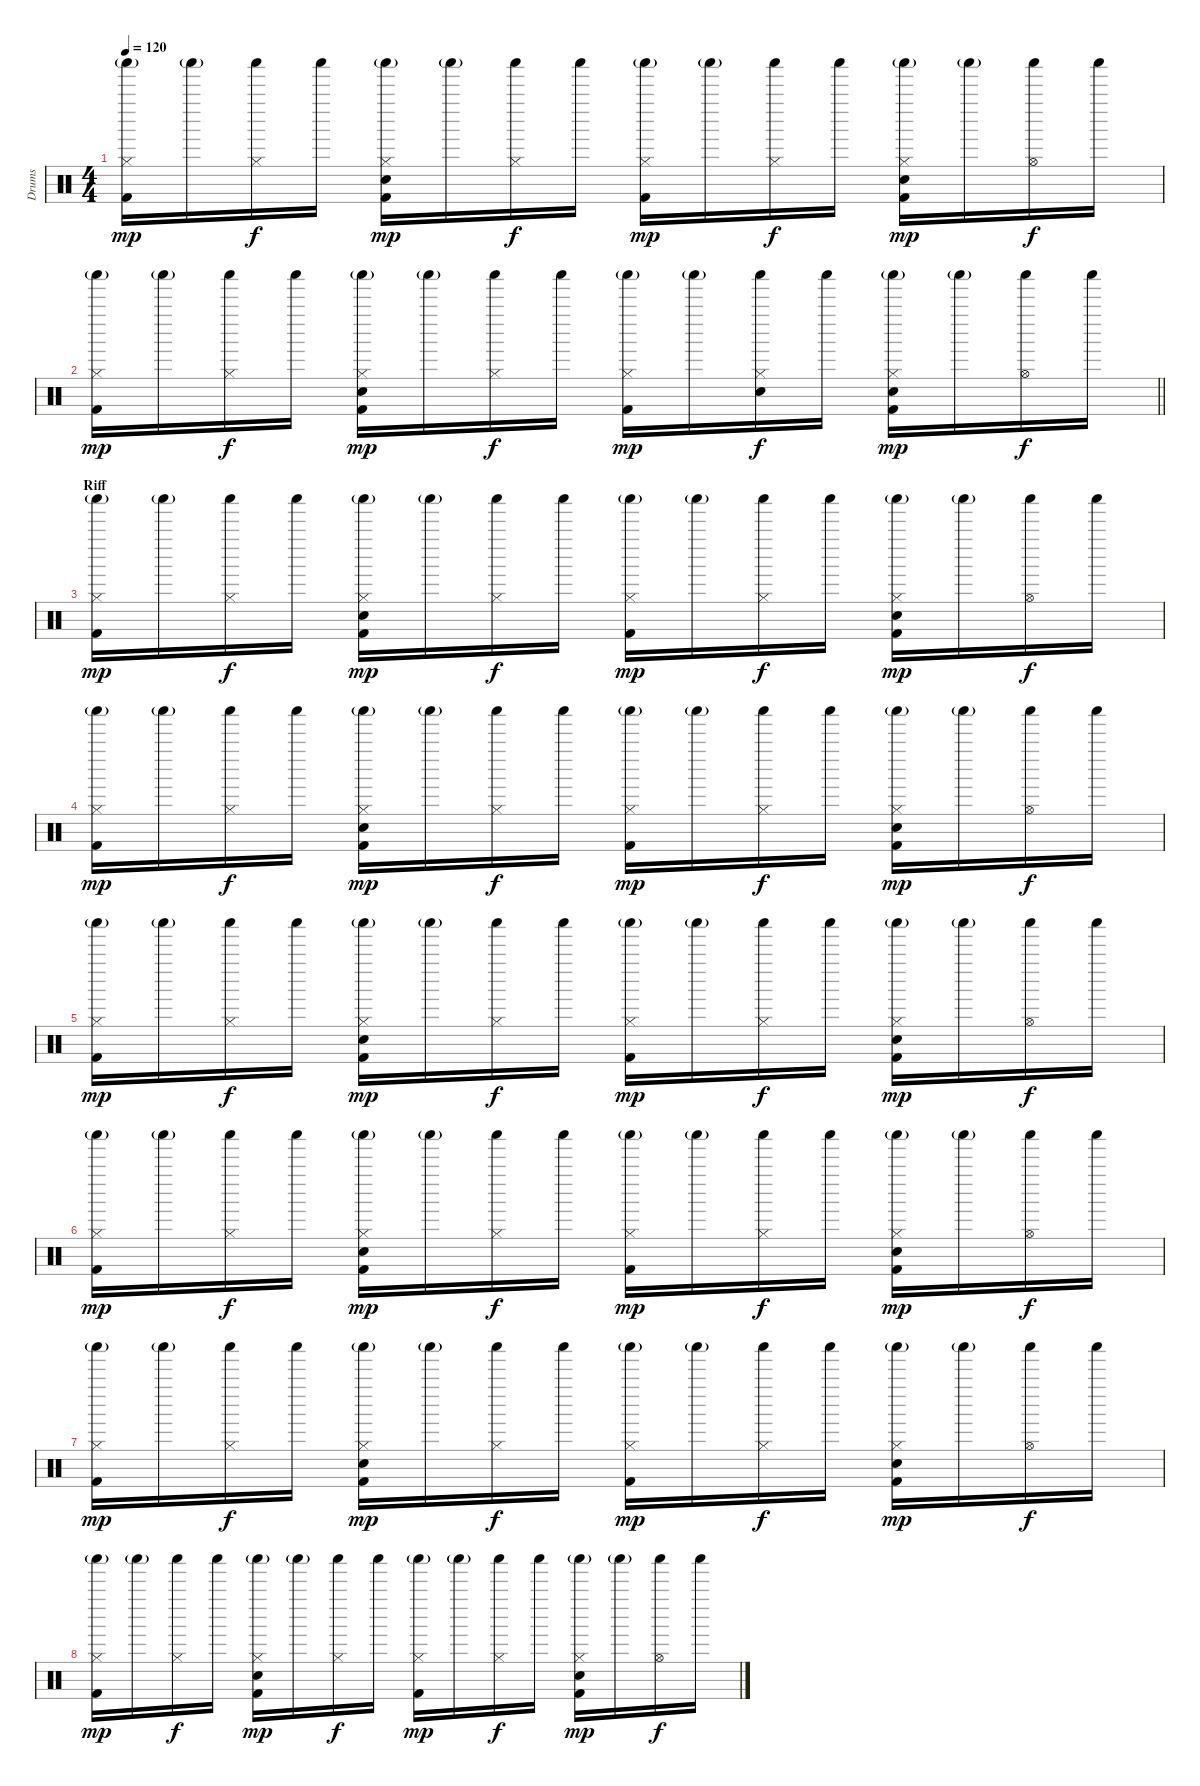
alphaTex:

\track ("Drums" "Drums") {instrument percussion}
\staff {score}
\articulation defaults
\ts (4 4)
\tempo 120
\clef neutral
\ks c
("Hi-Hat (closed)" "Shaker (hit)"{g} "Kick (hit) 2").16{dy mp} "Shaker (hit)"{g}.16 ("Hi-Hat (closed)" "Shaker (hit)").16{dy f} "Shaker (hit)".16 ("Hi-Hat (closed)" "Shaker (hit)"{g} "Electric Snare (hit)" "Kick (hit) 2").16{dy mp} "Shaker (hit)"{g}.16 ("Hi-Hat (closed)" "Shaker (hit)").16{dy f} "Shaker (hit)".16 ("Hi-Hat (closed)" "Shaker (hit)"{g} "Kick (hit) 2").16{dy mp} "Shaker (hit)"{g}.16 ("Hi-Hat (closed)" "Shaker (hit)").16{dy f} "Shaker (hit)".16 ("Hi-Hat (closed)" "Shaker (hit)"{g} "Electric Snare (hit)" "Kick (hit) 2").16{dy mp} "Shaker (hit)"{g}.16 ("Hi-Hat (open)" "Shaker (hit)").16{dy f} "Shaker (hit)".16 |
\barLineRight lightlight
("Hi-Hat (closed)" "Shaker (hit)"{g} "Kick (hit) 2").16{dy mp} "Shaker (hit)"{g}.16 ("Hi-Hat (closed)" "Shaker (hit)").16{dy f} "Shaker (hit)".16 ("Hi-Hat (closed)" "Shaker (hit)"{g} "Electric Snare (hit)" "Kick (hit) 2").16{dy mp} "Shaker (hit)"{g}.16 ("Hi-Hat (closed)" "Shaker (hit)").16{dy f} "Shaker (hit)".16 ("Hi-Hat (closed)" "Shaker (hit)"{g} "Kick (hit) 2").16{dy mp} "Shaker (hit)"{g}.16 ("Hi-Hat (closed)" "Shaker (hit)" "Electric Snare (hit)").16{dy f} "Shaker (hit)".16 ("Hi-Hat (closed)" "Shaker (hit)"{g} "Electric Snare (hit)" "Kick (hit) 2").16{dy mp} "Shaker (hit)"{g}.16 ("Hi-Hat (open)" "Shaker (hit)").16{dy f} "Shaker (hit)".16 |
\section ("" "Riff")
("Hi-Hat (closed)" "Shaker (hit)"{g} "Kick (hit) 2").16{dy mp} "Shaker (hit)"{g}.16 ("Hi-Hat (closed)" "Shaker (hit)").16{dy f} "Shaker (hit)".16 ("Hi-Hat (closed)" "Shaker (hit)"{g} "Electric Snare (hit)" "Kick (hit) 2").16{dy mp} "Shaker (hit)"{g}.16 ("Hi-Hat (closed)" "Shaker (hit)").16{dy f} "Shaker (hit)".16 ("Hi-Hat (closed)" "Shaker (hit)"{g} "Kick (hit) 2").16{dy mp} "Shaker (hit)"{g}.16 ("Hi-Hat (closed)" "Shaker (hit)").16{dy f} "Shaker (hit)".16 ("Hi-Hat (closed)" "Shaker (hit)"{g} "Electric Snare (hit)" "Kick (hit) 2").16{dy mp} "Shaker (hit)"{g}.16 ("Hi-Hat (open)" "Shaker (hit)").16{dy f} "Shaker (hit)".16 |
("Hi-Hat (closed)" "Shaker (hit)"{g} "Kick (hit) 2").16{dy mp} "Shaker (hit)"{g}.16 ("Hi-Hat (closed)" "Shaker (hit)").16{dy f} "Shaker (hit)".16 ("Hi-Hat (closed)" "Shaker (hit)"{g} "Electric Snare (hit)" "Kick (hit) 2").16{dy mp} "Shaker (hit)"{g}.16 ("Hi-Hat (closed)" "Shaker (hit)").16{dy f} "Shaker (hit)".16 ("Hi-Hat (closed)" "Shaker (hit)"{g} "Kick (hit) 2").16{dy mp} "Shaker (hit)"{g}.16 ("Hi-Hat (closed)" "Shaker (hit)").16{dy f} "Shaker (hit)".16 ("Hi-Hat (closed)" "Shaker (hit)"{g} "Electric Snare (hit)" "Kick (hit) 2").16{dy mp} "Shaker (hit)"{g}.16 ("Hi-Hat (open)" "Shaker (hit)").16{dy f} "Shaker (hit)".16 |
("Hi-Hat (closed)" "Shaker (hit)"{g} "Kick (hit) 2").16{dy mp} "Shaker (hit)"{g}.16 ("Hi-Hat (closed)" "Shaker (hit)").16{dy f} "Shaker (hit)".16 ("Hi-Hat (closed)" "Shaker (hit)"{g} "Electric Snare (hit)" "Kick (hit) 2").16{dy mp} "Shaker (hit)"{g}.16 ("Hi-Hat (closed)" "Shaker (hit)").16{dy f} "Shaker (hit)".16 ("Hi-Hat (closed)" "Shaker (hit)"{g} "Kick (hit) 2").16{dy mp} "Shaker (hit)"{g}.16 ("Hi-Hat (closed)" "Shaker (hit)").16{dy f} "Shaker (hit)".16 ("Hi-Hat (closed)" "Shaker (hit)"{g} "Electric Snare (hit)" "Kick (hit) 2").16{dy mp} "Shaker (hit)"{g}.16 ("Hi-Hat (open)" "Shaker (hit)").16{dy f} "Shaker (hit)".16 |
("Hi-Hat (closed)" "Shaker (hit)"{g} "Kick (hit) 2").16{dy mp} "Shaker (hit)"{g}.16 ("Hi-Hat (closed)" "Shaker (hit)").16{dy f} "Shaker (hit)".16 ("Hi-Hat (closed)" "Shaker (hit)"{g} "Electric Snare (hit)" "Kick (hit) 2").16{dy mp} "Shaker (hit)"{g}.16 ("Hi-Hat (closed)" "Shaker (hit)").16{dy f} "Shaker (hit)".16 ("Hi-Hat (closed)" "Shaker (hit)"{g} "Kick (hit) 2").16{dy mp} "Shaker (hit)"{g}.16 ("Hi-Hat (closed)" "Shaker (hit)").16{dy f} "Shaker (hit)".16 ("Hi-Hat (closed)" "Shaker (hit)"{g} "Electric Snare (hit)" "Kick (hit) 2").16{dy mp} "Shaker (hit)"{g}.16 ("Hi-Hat (open)" "Shaker (hit)").16{dy f} "Shaker (hit)".16 |
("Hi-Hat (closed)" "Shaker (hit)"{g} "Kick (hit) 2").16{dy mp} "Shaker (hit)"{g}.16 ("Hi-Hat (closed)" "Shaker (hit)").16{dy f} "Shaker (hit)".16 ("Hi-Hat (closed)" "Shaker (hit)"{g} "Electric Snare (hit)" "Kick (hit) 2").16{dy mp} "Shaker (hit)"{g}.16 ("Hi-Hat (closed)" "Shaker (hit)").16{dy f} "Shaker (hit)".16 ("Hi-Hat (closed)" "Shaker (hit)"{g} "Kick (hit) 2").16{dy mp} "Shaker (hit)"{g}.16 ("Hi-Hat (closed)" "Shaker (hit)").16{dy f} "Shaker (hit)".16 ("Hi-Hat (closed)" "Shaker (hit)"{g} "Electric Snare (hit)" "Kick (hit) 2").16{dy mp} "Shaker (hit)"{g}.16 ("Hi-Hat (open)" "Shaker (hit)").16{dy f} "Shaker (hit)".16 |
("Hi-Hat (closed)" "Shaker (hit)"{g} "Kick (hit) 2").16{dy mp} "Shaker (hit)"{g}.16 ("Hi-Hat (closed)" "Shaker (hit)").16{dy f} "Shaker (hit)".16 ("Hi-Hat (closed)" "Shaker (hit)"{g} "Electric Snare (hit)" "Kick (hit) 2").16{dy mp} "Shaker (hit)"{g}.16 ("Hi-Hat (closed)" "Shaker (hit)").16{dy f} "Shaker (hit)".16 ("Hi-Hat (closed)" "Shaker (hit)"{g} "Kick (hit) 2").16{dy mp} "Shaker (hit)"{g}.16 ("Hi-Hat (closed)" "Shaker (hit)").16{dy f} "Shaker (hit)".16 ("Hi-Hat (closed)" "Shaker (hit)"{g} "Electric Snare (hit)" "Kick (hit) 2").16{dy mp} "Shaker (hit)"{g}.16 ("Hi-Hat (open)" "Shaker (hit)").16{dy f} "Shaker (hit)".16
